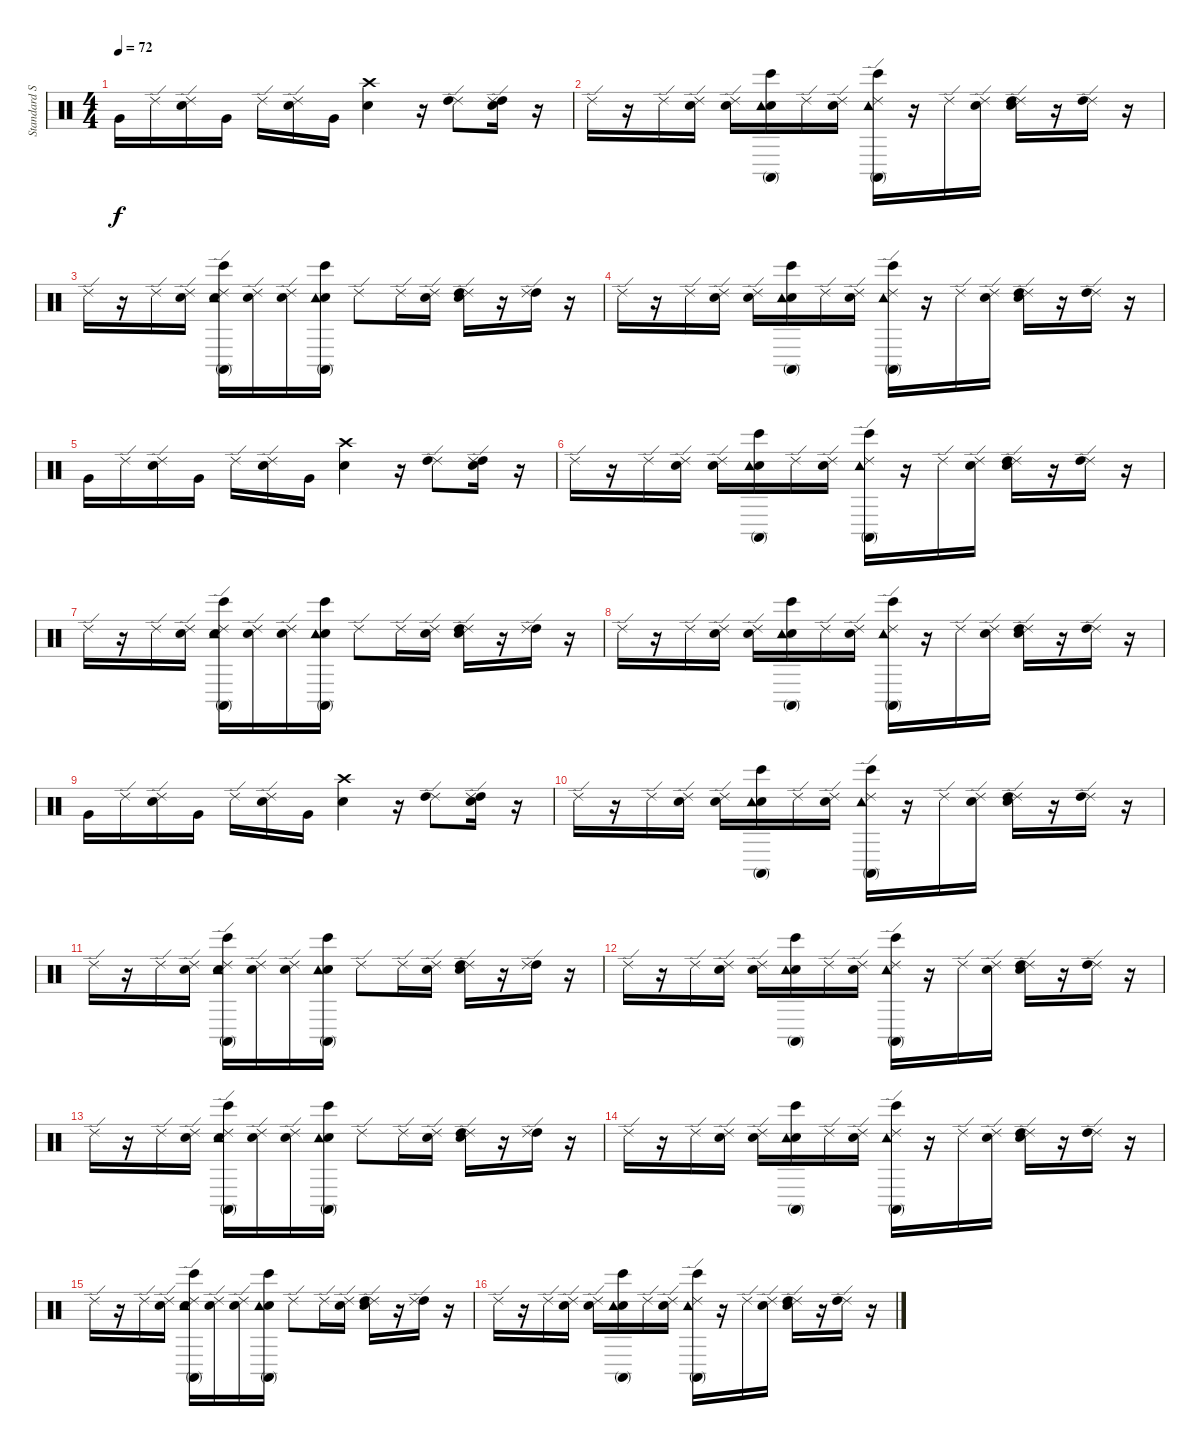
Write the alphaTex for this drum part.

\track ("Standard Set" "Standard S") {instrument percussion}
\staff {score}
\articulation defaults
\ts (4 4)
\tempo 72
\clef neutral
\ks c "Very Low Tom (hit)".16{dy f} "Ride (edge) 2".16
("Snare (hit)" "Ride (edge) 2").16 "Very Low Tom (hit)".16 "Ride (edge) 2".16 ("Snare (hit)" "Ride (edge) 2").16 "Very Low Tom (hit)".16 ("Snare (hit)" "Crash high (hit)").4 r.16 ("Ride (edge) 2" "High Tom (hit)").8 ("Snare (hit)" "High Tom (hit)" "Ride (edge) 2").16 r.16 |
"Ride (edge) 2".16 r.16 "Ride (edge) 2".16 ("Snare (hit)" "Ride (edge) 2").16 ("Snare (hit)" "Ride (edge) 2").16 ("Snare (hit)" "Conga high (mute)" "Bongo High (hit)" "Tambourine (hit)").16 "Ride (edge) 2".16 ("Snare (hit)" "Ride (edge) 2").16 ("Bongo High (hit)" "Conga high (mute)" "Ride (edge) 2" "Tambourine (hit)").16 r.16 "Ride (edge) 2".16 ("Snare (hit)" "Ride (edge) 2").16 ("Snare (hit)" "Ride (edge) 2" "High Tom (hit)").16 r.16 ("Ride (edge) 2" "High Tom (hit)").16 r.16 |
"Ride (edge) 2".16 r.16 "Ride (edge) 2".16 ("Snare (hit)" "Ride (edge) 2").16 ("Snare (hit)" "Ride (edge) 2" "Conga high (mute)" "Bongo High (hit)" "Tambourine (hit)").16 ("Snare (hit)" "Ride (edge) 2").16 ("Snare (hit)" "Ride (edge) 2").16 ("Snare (hit)" "Conga high (mute)" "Bongo High (hit)" "Tambourine (hit)").16 "Ride (edge) 2".8 "Ride (edge) 2".16 ("Snare (hit)" "Ride (edge) 2").16 ("Snare (hit)" "Ride (edge) 2" "High Tom (hit)").16 r.16 ("High Tom (hit)" "Ride (edge) 2").16 r.16 |
"Ride (edge) 2".16 r.16 "Ride (edge) 2".16 ("Snare (hit)" "Ride (edge) 2").16 ("Snare (hit)" "Ride (edge) 2").16 ("Snare (hit)" "Conga high (mute)" "Bongo High (hit)" "Tambourine (hit)").16 "Ride (edge) 2".16 ("Snare (hit)" "Ride (edge) 2").16 ("Bongo High (hit)" "Conga high (mute)" "Ride (edge) 2" "Tambourine (hit)").16 r.16 "Ride (edge) 2".16 ("Snare (hit)" "Ride (edge) 2").16 ("Snare (hit)" "Ride (edge) 2" "High Tom (hit)").16 r.16 ("Ride (edge) 2" "High Tom (hit)").16 r.16 |
"Very Low Tom (hit)".16 "Ride (edge) 2".16 ("Snare (hit)" "Ride (edge) 2").16 "Very Low Tom (hit)".16 "Ride (edge) 2".16 ("Snare (hit)" "Ride (edge) 2").16 "Very Low Tom (hit)".16 ("Snare (hit)" "Crash high (hit)").4 r.16 ("Ride (edge) 2" "High Tom (hit)").8 ("Snare (hit)" "High Tom (hit)" "Ride (edge) 2").16 r.16 |
"Ride (edge) 2".16 r.16 "Ride (edge) 2".16 ("Snare (hit)" "Ride (edge) 2").16 ("Snare (hit)" "Ride (edge) 2").16 ("Snare (hit)" "Conga high (mute)" "Bongo High (hit)" "Tambourine (hit)").16 "Ride (edge) 2".16 ("Snare (hit)" "Ride (edge) 2").16 ("Bongo High (hit)" "Conga high (mute)" "Ride (edge) 2" "Tambourine (hit)").16 r.16 "Ride (edge) 2".16 ("Snare (hit)" "Ride (edge) 2").16 ("Snare (hit)" "Ride (edge) 2" "High Tom (hit)").16 r.16 ("Ride (edge) 2" "High Tom (hit)").16 r.16 |
"Ride (edge) 2".16 r.16 "Ride (edge) 2".16 ("Snare (hit)" "Ride (edge) 2").16 ("Snare (hit)" "Ride (edge) 2" "Conga high (mute)" "Bongo High (hit)" "Tambourine (hit)").16 ("Snare (hit)" "Ride (edge) 2").16 ("Snare (hit)" "Ride (edge) 2").16 ("Snare (hit)" "Conga high (mute)" "Bongo High (hit)" "Tambourine (hit)").16 "Ride (edge) 2".8 "Ride (edge) 2".16 ("Snare (hit)" "Ride (edge) 2").16 ("Snare (hit)" "Ride (edge) 2" "High Tom (hit)").16 r.16 ("High Tom (hit)" "Ride (edge) 2").16 r.16 |
"Ride (edge) 2".16 r.16 "Ride (edge) 2".16 ("Snare (hit)" "Ride (edge) 2").16 ("Snare (hit)" "Ride (edge) 2").16 ("Snare (hit)" "Conga high (mute)" "Bongo High (hit)" "Tambourine (hit)").16 "Ride (edge) 2".16 ("Snare (hit)" "Ride (edge) 2").16 ("Bongo High (hit)" "Conga high (mute)" "Ride (edge) 2" "Tambourine (hit)").16 r.16 "Ride (edge) 2".16 ("Snare (hit)" "Ride (edge) 2").16 ("Snare (hit)" "Ride (edge) 2" "High Tom (hit)").16 r.16 ("Ride (edge) 2" "High Tom (hit)").16 r.16 |
"Very Low Tom (hit)".16 "Ride (edge) 2".16 ("Snare (hit)" "Ride (edge) 2").16 "Very Low Tom (hit)".16 "Ride (edge) 2".16 ("Snare (hit)" "Ride (edge) 2").16 "Very Low Tom (hit)".16 ("Snare (hit)" "Crash high (hit)").4 r.16 ("Ride (edge) 2" "High Tom (hit)").8 ("Snare (hit)" "High Tom (hit)" "Ride (edge) 2").16 r.16 |
"Ride (edge) 2".16 r.16 "Ride (edge) 2".16 ("Snare (hit)" "Ride (edge) 2").16 ("Snare (hit)" "Ride (edge) 2").16 ("Snare (hit)" "Conga high (mute)" "Bongo High (hit)" "Tambourine (hit)").16 "Ride (edge) 2".16 ("Snare (hit)" "Ride (edge) 2").16 ("Bongo High (hit)" "Conga high (mute)" "Ride (edge) 2" "Tambourine (hit)").16 r.16 "Ride (edge) 2".16 ("Snare (hit)" "Ride (edge) 2").16 ("Snare (hit)" "Ride (edge) 2" "High Tom (hit)").16 r.16 ("Ride (edge) 2" "High Tom (hit)").16 r.16 |
"Ride (edge) 2".16 r.16 "Ride (edge) 2".16 ("Snare (hit)" "Ride (edge) 2").16 ("Snare (hit)" "Ride (edge) 2" "Conga high (mute)" "Bongo High (hit)" "Tambourine (hit)").16 ("Snare (hit)" "Ride (edge) 2").16 ("Snare (hit)" "Ride (edge) 2").16 ("Snare (hit)" "Conga high (mute)" "Bongo High (hit)" "Tambourine (hit)").16 "Ride (edge) 2".8 "Ride (edge) 2".16 ("Snare (hit)" "Ride (edge) 2").16 ("Snare (hit)" "Ride (edge) 2" "High Tom (hit)").16 r.16 ("High Tom (hit)" "Ride (edge) 2").16 r.16 |
"Ride (edge) 2".16 r.16 "Ride (edge) 2".16 ("Snare (hit)" "Ride (edge) 2").16 ("Snare (hit)" "Ride (edge) 2").16 ("Snare (hit)" "Conga high (mute)" "Bongo High (hit)" "Tambourine (hit)").16 "Ride (edge) 2".16 ("Snare (hit)" "Ride (edge) 2").16 ("Bongo High (hit)" "Conga high (mute)" "Ride (edge) 2" "Tambourine (hit)").16 r.16 "Ride (edge) 2".16 ("Snare (hit)" "Ride (edge) 2").16 ("Snare (hit)" "Ride (edge) 2" "High Tom (hit)").16 r.16 ("Ride (edge) 2" "High Tom (hit)").16 r.16 |
"Ride (edge) 2".16 r.16 "Ride (edge) 2".16 ("Snare (hit)" "Ride (edge) 2").16 ("Snare (hit)" "Ride (edge) 2" "Conga high (mute)" "Bongo High (hit)" "Tambourine (hit)").16 ("Snare (hit)" "Ride (edge) 2").16 ("Snare (hit)" "Ride (edge) 2").16 ("Snare (hit)" "Conga high (mute)" "Bongo High (hit)" "Tambourine (hit)").16 "Ride (edge) 2".8 "Ride (edge) 2".16 ("Snare (hit)" "Ride (edge) 2").16 ("Snare (hit)" "Ride (edge) 2" "High Tom (hit)").16 r.16 ("High Tom (hit)" "Ride (edge) 2").16 r.16 |
"Ride (edge) 2".16 r.16 "Ride (edge) 2".16 ("Snare (hit)" "Ride (edge) 2").16 ("Snare (hit)" "Ride (edge) 2").16 ("Snare (hit)" "Conga high (mute)" "Bongo High (hit)" "Tambourine (hit)").16 "Ride (edge) 2".16 ("Snare (hit)" "Ride (edge) 2").16 ("Bongo High (hit)" "Conga high (mute)" "Ride (edge) 2" "Tambourine (hit)").16 r.16 "Ride (edge) 2".16 ("Snare (hit)" "Ride (edge) 2").16 ("Snare (hit)" "Ride (edge) 2" "High Tom (hit)").16 r.16 ("Ride (edge) 2" "High Tom (hit)").16 r.16 |
"Ride (edge) 2".16 r.16 "Ride (edge) 2".16 ("Snare (hit)" "Ride (edge) 2").16 ("Snare (hit)" "Ride (edge) 2" "Conga high (mute)" "Bongo High (hit)" "Tambourine (hit)").16 ("Snare (hit)" "Ride (edge) 2").16 ("Snare (hit)" "Ride (edge) 2").16 ("Snare (hit)" "Conga high (mute)" "Bongo High (hit)" "Tambourine (hit)").16 "Ride (edge) 2".8 "Ride (edge) 2".16 ("Snare (hit)" "Ride (edge) 2").16 ("Snare (hit)" "Ride (edge) 2" "High Tom (hit)").16 r.16 ("High Tom (hit)" "Ride (edge) 2").16 r.16 |
"Ride (edge) 2".16 r.16 "Ride (edge) 2".16 ("Snare (hit)" "Ride (edge) 2").16 ("Snare (hit)" "Ride (edge) 2").16 ("Snare (hit)" "Conga high (mute)" "Bongo High (hit)" "Tambourine (hit)").16 "Ride (edge) 2".16 ("Snare (hit)" "Ride (edge) 2").16 ("Bongo High (hit)" "Conga high (mute)" "Ride (edge) 2" "Tambourine (hit)").16 r.16 "Ride (edge) 2".16 ("Snare (hit)" "Ride (edge) 2").16 ("Snare (hit)" "Ride (edge) 2" "High Tom (hit)").16 r.16 ("Ride (edge) 2" "High Tom (hit)").16 r.16
